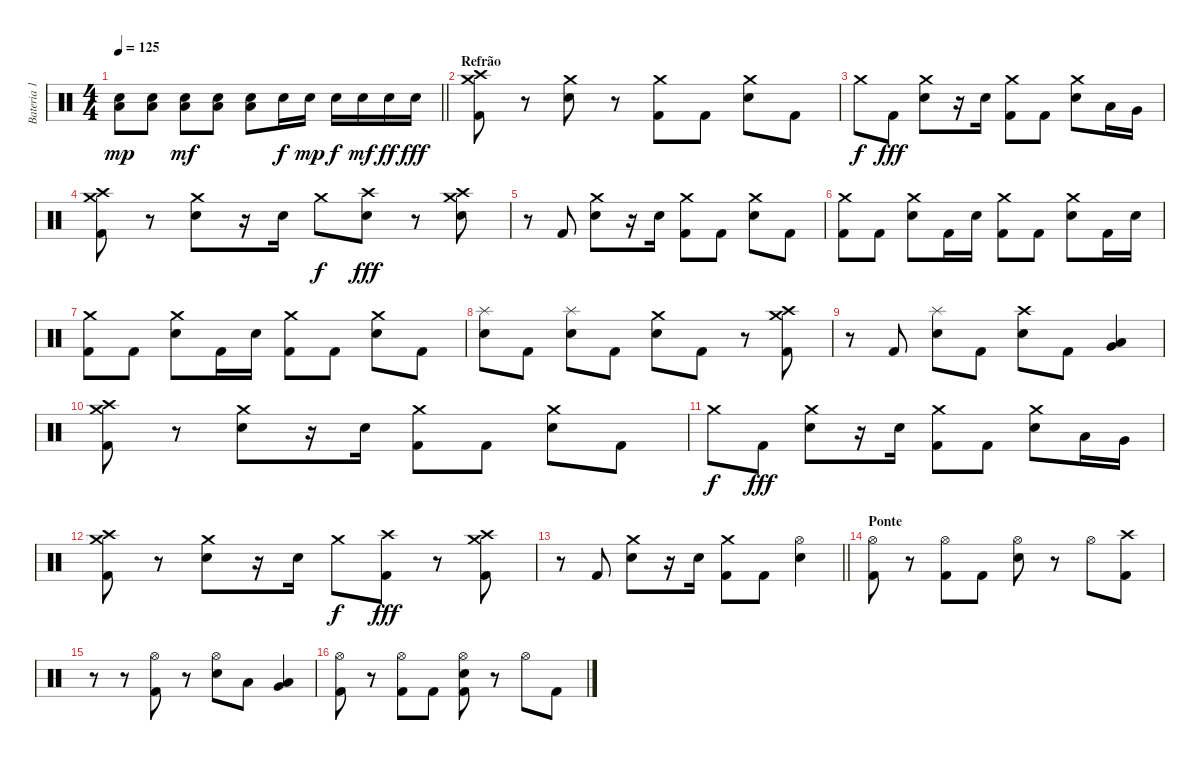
\track ("Bateria 1" "Bateria 1") {instrument percussion}
\staff {score}
\articulation defaults
\ts (4 4)
\tempo 125
\clef neutral
\barLineRight lightlight
\ks c
("Low Floor Tom (hit)" "Electric Snare (hit)").8{dy mp} ("Low Floor Tom (hit)" "Electric Snare (hit)").8 ("Low Floor Tom (hit)" "Electric Snare (hit)").8{dy mf} ("Low Floor Tom (hit)" "Electric Snare (hit)").8 ("Low Floor Tom (hit)" "Electric Snare (hit)").8 "Electric Snare (hit)".16{dy f} "Electric Snare (hit)".16{dy mp} "Electric Snare (hit)".16{dy f} "Electric Snare (hit)".16{dy mf} "Electric Snare (hit)".16{dy ff} "Electric Snare (hit)".16{dy fff} |
\section ("" "Refrão")
("Crash high (hit)" "Crash medium (hit)" "Kick (hit) 2").8 r.8 ("Crash medium (hit)" "Electric Snare (hit)").8 r.8 ("Crash medium (hit)" "Kick (hit) 2").8 "Kick (hit) 2".8 ("Crash medium (hit)" "Electric Snare (hit)").8 "Kick (hit) 2".8 |
"Crash medium (hit)".8{dy f} "Kick (hit) 2".8{dy fff} ("Crash medium (hit)" "Electric Snare (hit)").8 r.16 "Electric Snare (hit)".16 ("Crash medium (hit)" "Kick (hit) 2").8 "Kick (hit) 2".8 ("Crash medium (hit)" "Electric Snare (hit)").8 "Low Tom (hit)".16 "Very Low Tom (hit)".16 |
("Crash high (hit)" "Crash medium (hit)" "Kick (hit) 2").8 r.8 ("Crash medium (hit)" "Electric Snare (hit)").8 r.16 "Electric Snare (hit)".16 "Crash medium (hit)".8{dy f} ("Crash high (hit)" "Electric Snare (hit)").8{dy fff} r.8 ("Crash high (hit)" "Crash medium (hit)" "Electric Snare (hit)").8 |
r.8 "Kick (hit) 2".8 ("Crash medium (hit)" "Electric Snare (hit)").8 r.16 "Electric Snare (hit)".16 ("Crash medium (hit)" "Kick (hit) 2").8 "Kick (hit) 2".8 ("Crash medium (hit)" "Electric Snare (hit)").8 "Kick (hit) 2".8 |
("Crash medium (hit)" "Kick (hit) 2").8 "Kick (hit) 2".8 ("Crash medium (hit)" "Electric Snare (hit)").8 "Kick (hit) 2".16 "Electric Snare (hit)".16 ("Crash medium (hit)" "Kick (hit) 2").8 "Kick (hit) 2".8 ("Crash medium (hit)" "Electric Snare (hit)").8 "Kick (hit) 2".16 "Electric Snare (hit)".16 |
("Crash medium (hit)" "Kick (hit) 2").8 "Kick (hit) 2".8 ("Crash medium (hit)" "Electric Snare (hit)").8 "Kick (hit) 2".16 "Electric Snare (hit)".16 ("Crash medium (hit)" "Kick (hit) 2").8 "Kick (hit) 2".8 ("Crash medium (hit)" "Electric Snare (hit)").8 "Kick (hit) 2".8 |
("Splash (hit)" "Electric Snare (hit)").8 "Kick (hit) 2".8 ("Splash (hit)" "Electric Snare (hit)").8 "Kick (hit) 2".8 ("Crash medium (hit)" "Electric Snare (hit)").8 "Kick (hit) 2".8 r.8 ("Crash high (hit)" "Crash medium (hit)" "Kick (hit) 2").8 |
r.8 "Kick (hit) 2".8 ("Splash (hit)" "Electric Snare (hit)").8 "Kick (hit) 2".8 ("Crash high (hit)" "Electric Snare (hit)").8 "Kick (hit) 2".8 ("Very Low Tom (hit)" "Low Floor Tom (hit)").4 |
("Crash high (hit)" "Crash medium (hit)" "Kick (hit) 2").8 r.8 ("Crash medium (hit)" "Electric Snare (hit)").8 r.16 "Electric Snare (hit)".16 ("Crash medium (hit)" "Kick (hit) 2").8 "Kick (hit) 2".8 ("Crash medium (hit)" "Electric Snare (hit)").8 "Kick (hit) 2".8 |
"Crash medium (hit)".8{dy f} "Kick (hit) 2".8{dy fff} ("Crash medium (hit)" "Electric Snare (hit)").8 r.16 "Electric Snare (hit)".16 ("Crash medium (hit)" "Kick (hit) 2").8 "Kick (hit) 2".8 ("Crash medium (hit)" "Electric Snare (hit)").8 "Low Tom (hit)".16 "Very Low Tom (hit)".16 |
("Crash high (hit)" "Crash medium (hit)" "Kick (hit) 2").8 r.8 ("Crash medium (hit)" "Electric Snare (hit)").8 r.16 "Electric Snare (hit)".16 "Crash medium (hit)".8{dy f} ("Crash high (hit)" "Kick (hit) 2").8{dy fff} r.8 ("Crash high (hit)" "Crash medium (hit)" "Kick (hit) 2").8 |
\barLineRight lightlight
r.8 "Kick (hit) 2".8 ("Crash medium (hit)" "Electric Snare (hit)").8 r.16 "Electric Snare (hit)".16 ("Crash medium (hit)" "Kick (hit) 2").8 "Kick (hit) 2".8 ("Hi-Hat (open)" "Electric Snare (hit)").4 |
\section ("" "Ponte")
("Hi-Hat (open)" "Kick (hit) 2").8 r.8 ("Hi-Hat (open)" "Kick (hit) 2").8 "Kick (hit) 2".8 ("Hi-Hat (open)" "Electric Snare (hit)").8 r.8 "Hi-Hat (open)".8 ("Crash high (hit)" "Kick (hit) 2").8 |
r.8 r.8 ("Hi-Hat (open)" "Kick (hit) 2").8 r.8 ("Hi-Hat (open)" "Electric Snare (hit)").8 "Low Tom (hit)".8 ("Very Low Tom (hit)" "Low Floor Tom (hit)").4 |
("Hi-Hat (open)" "Kick (hit) 2").8 r.8 ("Hi-Hat (open)" "Kick (hit) 2").8 "Kick (hit) 2".8 ("Hi-Hat (open)" "Electric Snare (hit)" "Kick (hit) 2").8 r.8 "Hi-Hat (open)".8 "Kick (hit) 2".8
